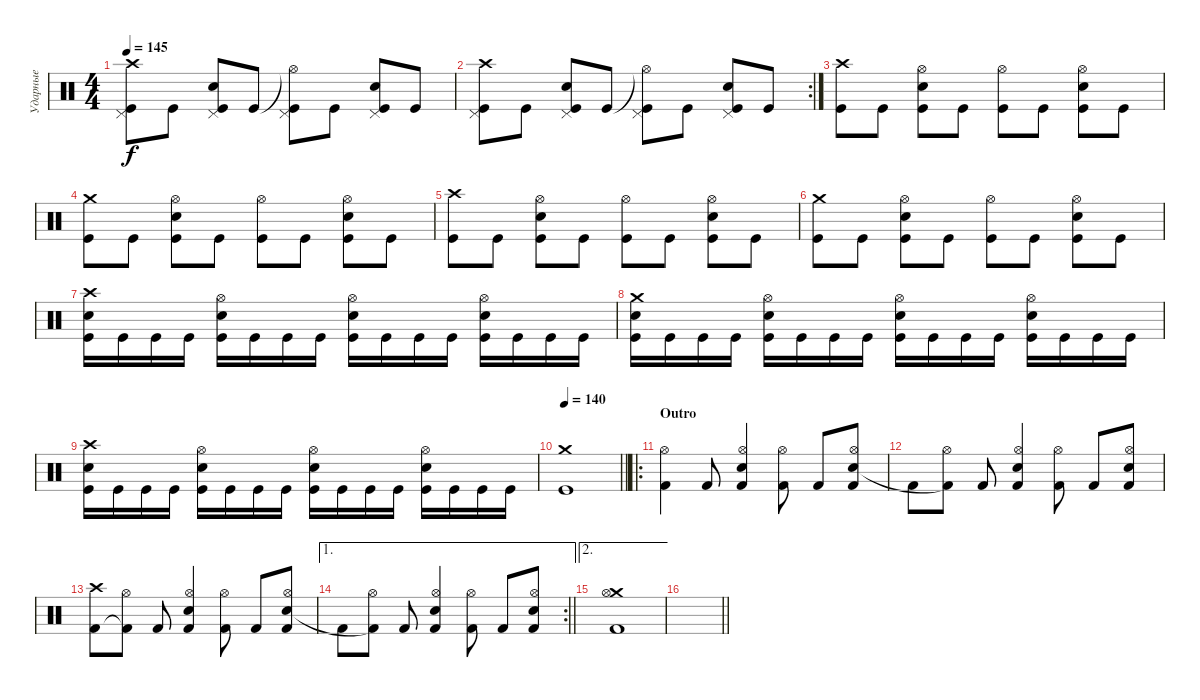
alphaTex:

\track ("Ударные" "Ударные") {instrument percussion}
\staff
\articulation defaults
\ts (4 4)
\tempo 145
\clef neutral
\ks c
("Crash high (hit)" "Pedal Hi-Hat (hit)" "Kick (hit)").8{dy f} "Kick (hit)".8 ("Pedal Hi-Hat (hit)" "Snare (hit) 2" "Kick (hit)").8 "Kick (hit)".8 ("Hi-Hat (open)"{t} "Pedal Hi-Hat (hit)" "Kick (hit)").8 "Kick (hit)".8 ("Pedal Hi-Hat (hit)" "Snare (hit) 2" "Kick (hit)").8 "Kick (hit)".8 |
\rc 2
("Crash high (hit)" "Pedal Hi-Hat (hit)" "Kick (hit)").8 "Kick (hit)".8 ("Pedal Hi-Hat (hit)" "Snare (hit) 2" "Kick (hit)").8 "Kick (hit)".8 ("Hi-Hat (open)"{t} "Pedal Hi-Hat (hit)" "Kick (hit)").8 "Kick (hit)".8 ("Pedal Hi-Hat (hit)" "Snare (hit) 2" "Kick (hit)").8 "Kick (hit)".8 |
("Crash high (hit)" "Kick (hit)").8 "Kick (hit)".8 ("Hi-Hat (open)" "Snare (hit) 2" "Kick (hit)").8 "Kick (hit)".8 ("Hi-Hat (open)" "Kick (hit)").8 "Kick (hit)".8 ("Hi-Hat (open)" "Snare (hit) 2" "Kick (hit)").8 "Kick (hit)".8 |
("Crash medium (hit)" "Kick (hit)").8 "Kick (hit)".8 ("Hi-Hat (open)" "Snare (hit) 2" "Kick (hit)").8 "Kick (hit)".8 ("Hi-Hat (open)" "Kick (hit)").8 "Kick (hit)".8 ("Hi-Hat (open)" "Snare (hit) 2" "Kick (hit)").8 "Kick (hit)".8 |
("Crash high (hit)" "Kick (hit)").8 "Kick (hit)".8 ("Hi-Hat (open)" "Snare (hit) 2" "Kick (hit)").8 "Kick (hit)".8 ("Hi-Hat (open)" "Kick (hit)").8 "Kick (hit)".8 ("Hi-Hat (open)" "Snare (hit) 2" "Kick (hit)").8 "Kick (hit)".8 |
("Crash medium (hit)" "Kick (hit)").8 "Kick (hit)".8 ("Hi-Hat (open)" "Snare (hit) 2" "Kick (hit)").8 "Kick (hit)".8 ("Hi-Hat (open)" "Kick (hit)").8 "Kick (hit)".8 ("Hi-Hat (open)" "Snare (hit) 2" "Kick (hit)").8 "Kick (hit)".8 |
("Crash high (hit)" "Snare (hit) 2" "Kick (hit)").16 "Kick (hit)".16 "Kick (hit)".16 "Kick (hit)".16 ("Hi-Hat (open)" "Snare (hit) 2" "Kick (hit)").16 "Kick (hit)".16 "Kick (hit)".16 "Kick (hit)".16 ("Hi-Hat (open)" "Snare (hit) 2" "Kick (hit)").16 "Kick (hit)".16 "Kick (hit)".16 "Kick (hit)".16 ("Hi-Hat (open)" "Snare (hit) 2" "Kick (hit)").16 "Kick (hit)".16 "Kick (hit)".16 "Kick (hit)".16 |
("Crash medium (hit)" "Snare (hit) 2" "Kick (hit)").16 "Kick (hit)".16 "Kick (hit)".16 "Kick (hit)".16 ("Hi-Hat (open)" "Snare (hit) 2" "Kick (hit)").16 "Kick (hit)".16 "Kick (hit)".16 "Kick (hit)".16 ("Hi-Hat (open)" "Snare (hit) 2" "Kick (hit)").16 "Kick (hit)".16 "Kick (hit)".16 "Kick (hit)".16 ("Hi-Hat (open)" "Snare (hit) 2" "Kick (hit)").16 "Kick (hit)".16 "Kick (hit)".16 "Kick (hit)".16 |
("Crash high (hit)" "Snare (hit) 2" "Kick (hit)").16 "Kick (hit)".16 "Kick (hit)".16 "Kick (hit)".16 ("Hi-Hat (open)" "Snare (hit) 2" "Kick (hit)").16 "Kick (hit)".16 "Kick (hit)".16 "Kick (hit)".16 ("Hi-Hat (open)" "Snare (hit) 2" "Kick (hit)").16 "Kick (hit)".16 "Kick (hit)".16 "Kick (hit)".16 ("Hi-Hat (open)" "Snare (hit) 2" "Kick (hit)").16 "Kick (hit)".16 "Kick (hit)".16 "Kick (hit)".16 |
\tempo 140
\barLineRight lightlight
("Crash medium (hit)" "Kick (hit)").1 |
\ro
\section ("" "Outro")
("Hi-Hat (open)" "Kick (hit) 2").4 "Kick (hit) 2".8 ("Hi-Hat (open)" "Snare (hit) 2" "Kick (hit) 2").4 ("Hi-Hat (open)" "Kick (hit) 2").8 "Kick (hit) 2".8 ("Hi-Hat (open)" "Snare (hit) 2" "Kick (hit) 2").8 |
"Kick (hit) 2".8 ("Hi-Hat (open)" "Kick (hit) 2"{t}).8 "Kick (hit) 2".8 ("Hi-Hat (open)" "Snare (hit) 2" "Kick (hit) 2").4 ("Hi-Hat (open)" "Kick (hit) 2").8 "Kick (hit) 2".8 ("Hi-Hat (open)" "Snare (hit) 2" "Kick (hit) 2").8 |
("Crash high (hit)" "Kick (hit) 2").8 ("Hi-Hat (open)" "Kick (hit) 2"{t}).8 "Kick (hit) 2".8 ("Hi-Hat (open)" "Snare (hit) 2" "Kick (hit) 2").4 ("Hi-Hat (open)" "Kick (hit) 2").8 "Kick (hit) 2".8 ("Hi-Hat (open)" "Snare (hit) 2" "Kick (hit) 2").8 |
\ae 1
\rc 2
\barLineRight lightlight "Kick (hit) 2".8
("Hi-Hat (open)" "Kick (hit) 2"{t}).8 "Kick (hit) 2".8 ("Hi-Hat (open)" "Snare (hit) 2" "Kick (hit) 2").4 ("Hi-Hat (open)" "Kick (hit) 2").8 "Kick (hit) 2".8 ("Hi-Hat (open)" "Snare (hit) 2" "Kick (hit) 2").8 |
\ae 2
("Crash medium (hit)" "Hi-Hat (open)" "Kick (hit) 2").1 |
\barLineRight lightlight
